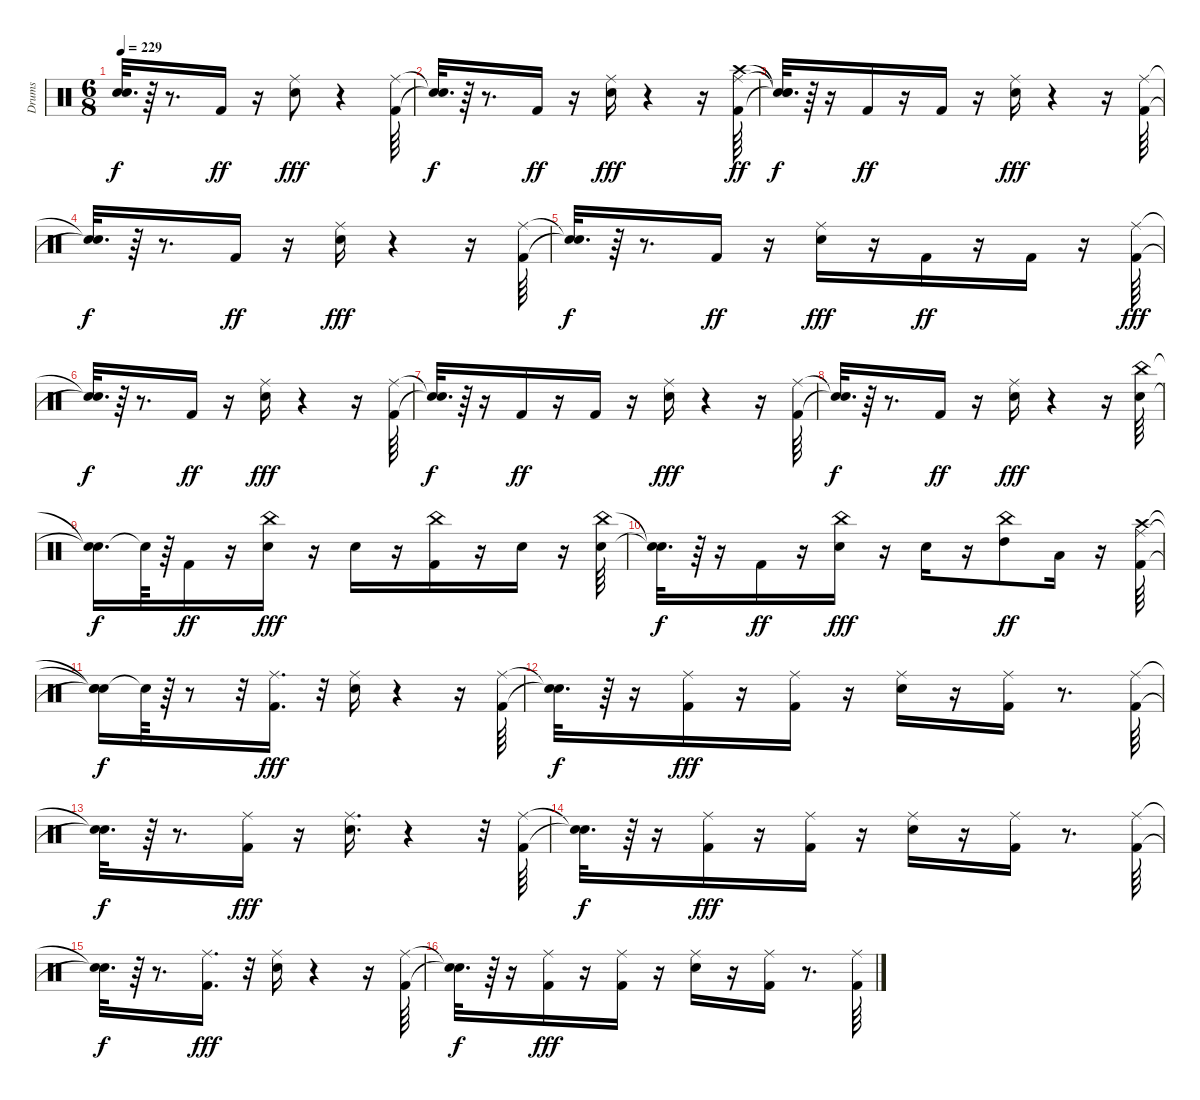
\track ("Drums" "Drums") {instrument percussion}
\staff {score}
\articulation defaults
\ts (6 8)
\tempo 229
\clef neutral
\ks c
("Snare (hit)"{t} "Snare (hit)"{t}).32{d dy f} r.64 r.8{d} "Kick (hit) 2".16{dy ff} r.16 ("Snare (hit) 2" "Ride (middle)").8{dy fff} r.4 ("Kick (hit) 2" "Ride (middle)").64 |
("Snare (hit)"{t} "Snare (hit)"{t}).32{d dy f} r.64 r.8{d} "Kick (hit) 2".16{dy ff} r.16 ("Snare (hit) 2" "Ride (middle)").16{dy fff} r.4 r.16 ("Kick (hit) 2" "Ride (middle)" "Crash high (hit)").64{dy ff} |
("Snare (hit)"{t} "Snare (hit)"{t} "Snare (hit)"{t}).32{d dy f} r.64 r.16 "Kick (hit) 2".16{dy ff} r.16 "Kick (hit) 2".16 r.16 ("Snare (hit) 2" "Ride (middle)").16{dy fff} r.4 r.16 ("Kick (hit) 2" "Ride (middle)").64 |
("Snare (hit)"{t} "Snare (hit)"{t}).32{d dy f} r.64 r.8{d} "Kick (hit) 2".16{dy ff} r.16 ("Snare (hit) 2" "Ride (middle)").16{dy fff} r.4 r.16 ("Kick (hit) 2" "Ride (middle)").64 |
("Snare (hit)"{t} "Snare (hit)"{t}).32{d dy f} r.64 r.8{d} "Kick (hit) 2".16{dy ff} r.16 ("Snare (hit) 2" "Ride (middle)").16{dy fff} r.16 "Kick (hit) 2".16{dy ff} r.16 "Kick (hit) 2".16 r.16 ("Kick (hit) 2" "Ride (middle)").64{dy fff} |
("Snare (hit)"{t} "Snare (hit)"{t}).32{d dy f} r.64 r.8{d} "Kick (hit) 2".16{dy ff} r.16 ("Snare (hit) 2" "Ride (middle)").16{dy fff} r.4 r.16 ("Kick (hit) 2" "Ride (middle)").64 |
("Snare (hit)"{t} "Snare (hit)"{t}).32{d dy f} r.64 r.16 "Kick (hit) 2".16{dy ff} r.16 "Kick (hit) 2".16 r.16 ("Snare (hit) 2" "Ride (middle)").16{dy fff} r.4 r.16 ("Kick (hit) 2" "Ride (middle)").64 |
("Snare (hit)"{t} "Snare (hit)"{t}).32{d dy f} r.64 r.8{d} "Kick (hit) 2".16{dy ff} r.16 ("Snare (hit) 2" "Ride (middle)").16{dy fff} r.4 r.16 ("Snare (hit) 2" "China (hit)").64 |
("Snare (hit)"{t} "Snare (hit)"{t}).16{d dy f} "Snare (hit)"{t}.64 r.64 "Kick (hit) 2".16{dy ff} r.16 ("Snare (hit) 2" "China (hit)").16{dy fff} r.16 "Snare (hit) 2".16 r.16 ("Kick (hit) 2" "China (hit)").16 r.16 "Snare (hit) 2".16 r.16 ("Snare (hit) 2" "China (hit)").64 |
("Snare (hit)"{t} "Snare (hit)"{t}).32{d dy f} r.64 r.16 "Kick (hit) 2".16{dy ff} r.16 ("Snare (hit) 2" "China (hit)").16{dy fff} r.16 "Snare (hit) 2".16 r.16 ("China (hit)" "High Tom (hit)").8{dy ff} "Low Tom (hit)".16{volume 16} r.16 ("Kick (hit) 2" "Ride (middle)" "Crash high (hit)").64 |
("Snare (hit)"{t} "Snare (hit)"{t} "Snare (hit)"{t}).16{dy f} "Snare (hit)"{t}.64 r.64 r.8 r.32 ("Kick (hit) 2" "Ride (middle)").16{d dy fff} r.32 ("Snare (hit) 2" "Ride (middle)").16 r.4 r.16 ("Kick (hit) 2" "Ride (middle)").64 |
("Snare (hit)"{t} "Snare (hit)"{t}).32{d dy f} r.64 r.16 ("Kick (hit) 2" "Ride (middle)").16{dy fff} r.16 ("Kick (hit) 2" "Ride (middle)").16 r.16 ("Snare (hit) 2" "Ride (middle)").16 r.16 ("Kick (hit) 2" "Ride (middle)").16 r.8{d} ("Kick (hit) 2" "Ride (middle)").64 |
("Snare (hit)"{t} "Snare (hit)"{t}).32{d dy f} r.64 r.8{d} ("Kick (hit) 2" "Ride (middle)").16{dy fff} r.16 ("Snare (hit) 2" "Ride (middle)").16{d} r.4 r.32 ("Kick (hit) 2" "Ride (middle)").64 |
("Snare (hit)"{t} "Snare (hit)"{t}).32{d dy f} r.64 r.16 ("Kick (hit) 2" "Ride (middle)").16{dy fff} r.16 ("Kick (hit) 2" "Ride (middle)").16 r.16 ("Snare (hit) 2" "Ride (middle)").16 r.16 ("Kick (hit) 2" "Ride (middle)").16 r.8{d} ("Kick (hit) 2" "Ride (middle)").64 |
("Snare (hit)"{t} "Snare (hit)"{t}).32{d dy f} r.64 r.8{d} ("Kick (hit) 2" "Ride (middle)").16{d dy fff} r.32 ("Snare (hit) 2" "Ride (middle)").16 r.4 r.16 ("Kick (hit) 2" "Ride (middle)").64 |
("Snare (hit)"{t} "Snare (hit)"{t}).32{d dy f} r.64 r.16 ("Kick (hit) 2" "Ride (middle)").16{dy fff} r.16 ("Kick (hit) 2" "Ride (middle)").16 r.16 ("Snare (hit) 2" "Ride (middle)").16 r.16 ("Kick (hit) 2" "Ride (middle)").16 r.8{d} ("Kick (hit) 2" "Ride (middle)").64
